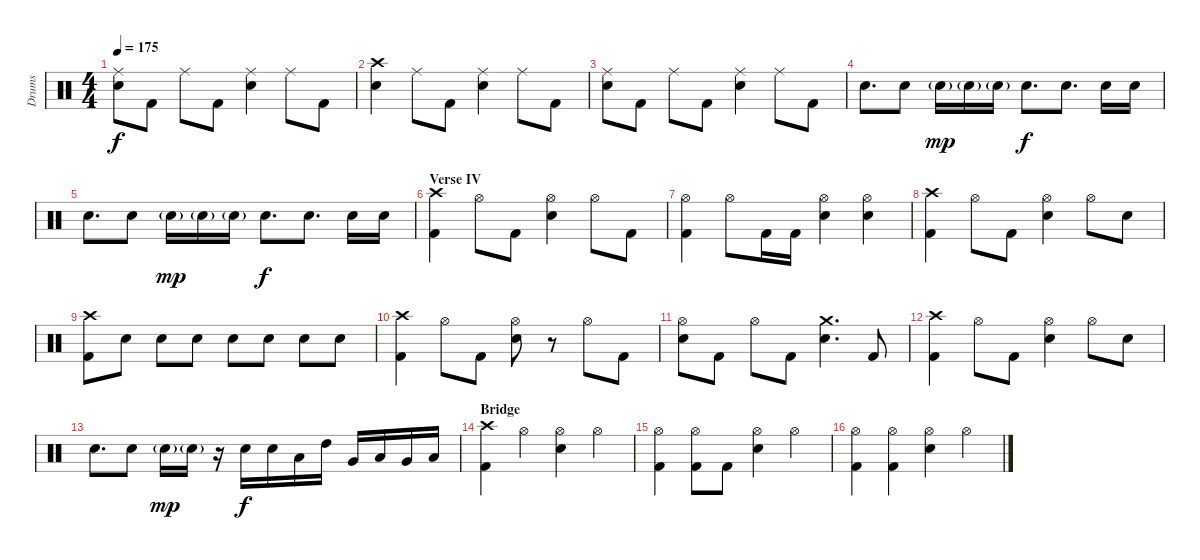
\track ("Drums" "Drums") {instrument percussion}
\staff {score}
\articulation defaults
\ts (4 4)
\tempo 175
\clef neutral
\ks c
("Ride (middle)" "Snare (hit) 2").8{dy f} "Kick (hit) 2".8 "Ride (middle)".8 "Kick (hit) 2".8 ("Ride (middle)" "Snare (hit) 2").4 "Ride (middle)".8 "Kick (hit) 2".8 |
("Crash high (hit)" "Snare (hit) 2").4 "Ride (middle)".8 "Kick (hit) 2".8 ("Ride (middle)" "Snare (hit) 2").4 "Ride (middle)".8 "Kick (hit) 2".8 |
("Ride (middle)" "Snare (hit) 2").8 "Kick (hit) 2".8 "Ride (middle)".8 "Kick (hit) 2".8 ("Ride (middle)" "Snare (hit) 2").4 "Ride (middle)".8 "Kick (hit) 2".8 |
"Snare (hit) 2".8{d} "Snare (hit) 2".8 "Snare (hit) 2"{g}.16{dy mp} "Snare (hit) 2"{g}.16 "Snare (hit) 2"{g}.16 "Snare (hit) 2".8{d dy f} "Snare (hit) 2".8{d} "Snare (hit) 2".16 "Snare (hit) 2".16 |
"Snare (hit) 2".8{d} "Snare (hit) 2".8 "Snare (hit) 2"{g}.16{dy mp} "Snare (hit) 2"{g}.16 "Snare (hit) 2"{g}.16 "Snare (hit) 2".8{d dy f} "Snare (hit) 2".8{d} "Snare (hit) 2".16 "Snare (hit) 2".16 |
\section ("" "Verse IV")
("Crash high (hit)" "Kick (hit) 2").4 "Hi-Hat (open)".8 "Kick (hit) 2".8 ("Hi-Hat (open)" "Snare (hit) 2").4 "Hi-Hat (open)".8 "Kick (hit) 2".8 |
("Hi-Hat (open)" "Kick (hit) 2").4 "Hi-Hat (open)".8 "Kick (hit) 2".16 "Kick (hit) 2".16 ("Hi-Hat (open)" "Snare (hit) 2").4 ("Hi-Hat (open)" "Snare (hit) 2").4 |
("Crash high (hit)" "Kick (hit) 2").4 "Hi-Hat (open)".8 "Kick (hit) 2".8 ("Hi-Hat (open)" "Snare (hit) 2").4 "Hi-Hat (open)".8 "Snare (hit) 2".8 |
("Crash high (hit)" "Kick (hit) 2").8 "Snare (hit) 2".8 "Snare (hit) 2".8 "Snare (hit) 2".8 "Snare (hit) 2".8 "Snare (hit) 2".8 "Snare (hit) 2".8 "Snare (hit) 2".8 |
("Crash high (hit)" "Kick (hit) 2").4 "Hi-Hat (open)".8 "Kick (hit) 2".8 ("Hi-Hat (open)" "Snare (hit) 2").8 r.8 "Hi-Hat (open)".8 "Kick (hit) 2".8 |
("Hi-Hat (open)" "Snare (hit) 2").8 "Kick (hit) 2".8 "Hi-Hat (open)".8 "Kick (hit) 2".8 ("Crash medium (hit)" "Snare (hit) 2").4{d} "Kick (hit) 2".8 |
("Crash high (hit)" "Kick (hit) 2").4 "Hi-Hat (open)".8 "Kick (hit) 2".8 ("Hi-Hat (open)" "Snare (hit) 2").4 "Hi-Hat (open)".8 "Snare (hit) 2".8 |
"Snare (hit) 2".8{d} "Snare (hit) 2".8 "Snare (hit) 2"{g}.16{dy mp} "Snare (hit) 2"{g}.16 r.16 "Snare (hit) 2".16{dy f} "Snare (hit) 2".16 "Low Tom (hit)".16 "High Tom (hit)".16 "Very Low Tom (hit)".16 "Low Tom (hit)".16 "Very Low Tom (hit)".16 "Low Floor Tom (hit)".16 |
\section ("" "Bridge")
("Crash high (hit)" "Kick (hit) 2").4 "Hi-Hat (open)".4 ("Hi-Hat (open)" "Snare (hit) 2").4 "Hi-Hat (open)".4 |
("Hi-Hat (open)" "Kick (hit) 2").4 ("Hi-Hat (open)" "Kick (hit) 2").8 "Kick (hit) 2".8 ("Hi-Hat (open)" "Snare (hit) 2").4 "Hi-Hat (open)".4 |
("Hi-Hat (open)" "Kick (hit) 2").4 ("Hi-Hat (open)" "Kick (hit) 2").4 ("Hi-Hat (open)" "Snare (hit) 2").4 "Hi-Hat (open)".4
